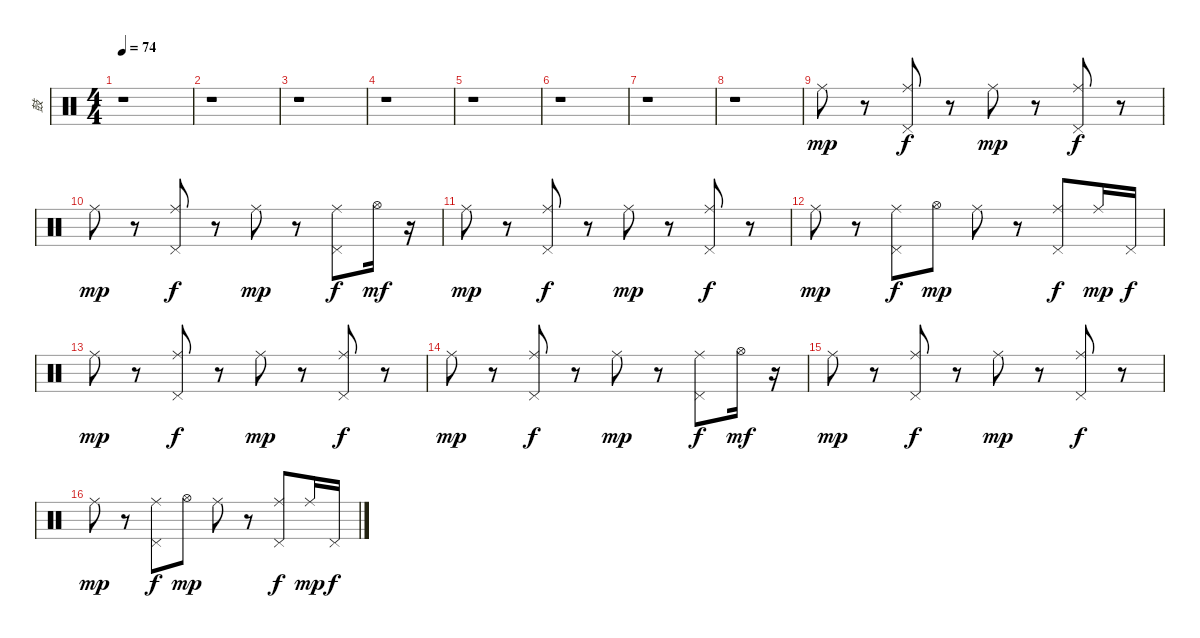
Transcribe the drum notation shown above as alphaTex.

\track ("鼓" "鼓") {instrument percussion}
\staff {score}
\articulation defaults
\ts (4 4)
\tempo 74
\clef neutral
\ks c
r.1{dy mp} |
r.1 |
r.1 |
r.1 |
r.1 |
r.1 |
r.1 |
r.1 |
"Ride (middle)".8 r.8 ("Pedal Hi-Hat (hit)" "Ride (middle)").8{dy f} r.8 "Ride (middle)".8{dy mp} r.8 ("Pedal Hi-Hat (hit)" "Ride (middle)").8{dy f} r.8 |
"Ride (middle)".8{dy mp} r.8 ("Pedal Hi-Hat (hit)" "Ride (middle)").8{dy f} r.8 "Ride (middle)".8{dy mp} r.8 ("Pedal Hi-Hat (hit)" "Ride (middle)").8{dy f} "Hi-Hat (open)".16{dy mf} r.16 |
"Ride (middle)".8{dy mp} r.8 ("Pedal Hi-Hat (hit)" "Ride (middle)").8{dy f} r.8 "Ride (middle)".8{dy mp} r.8 ("Pedal Hi-Hat (hit)" "Ride (middle)").8{dy f} r.8 |
"Ride (middle)".8{dy mp} r.8 ("Pedal Hi-Hat (hit)" "Ride (middle)").8{dy f} "Hi-Hat (open)".8{dy mp} "Ride (middle)".8 r.8 ("Pedal Hi-Hat (hit)" "Ride (middle)").8{dy f} "Ride (middle)".16{dy mp} "Pedal Hi-Hat (hit)".16{dy f} |
"Ride (middle)".8{dy mp} r.8 ("Pedal Hi-Hat (hit)" "Ride (middle)").8{dy f} r.8 "Ride (middle)".8{dy mp} r.8 ("Pedal Hi-Hat (hit)" "Ride (middle)").8{dy f} r.8 |
"Ride (middle)".8{dy mp} r.8 ("Pedal Hi-Hat (hit)" "Ride (middle)").8{dy f} r.8 "Ride (middle)".8{dy mp} r.8 ("Pedal Hi-Hat (hit)" "Ride (middle)").8{dy f} "Hi-Hat (open)".16{dy mf} r.16 |
"Ride (middle)".8{dy mp} r.8 ("Pedal Hi-Hat (hit)" "Ride (middle)").8{dy f} r.8 "Ride (middle)".8{dy mp} r.8 ("Pedal Hi-Hat (hit)" "Ride (middle)").8{dy f} r.8 |
"Ride (middle)".8{dy mp} r.8 ("Pedal Hi-Hat (hit)" "Ride (middle)").8{dy f} "Hi-Hat (open)".8{dy mp} "Ride (middle)".8 r.8 ("Pedal Hi-Hat (hit)" "Ride (middle)").8{dy f} "Ride (middle)".16{dy mp} "Pedal Hi-Hat (hit)".16{dy f}
